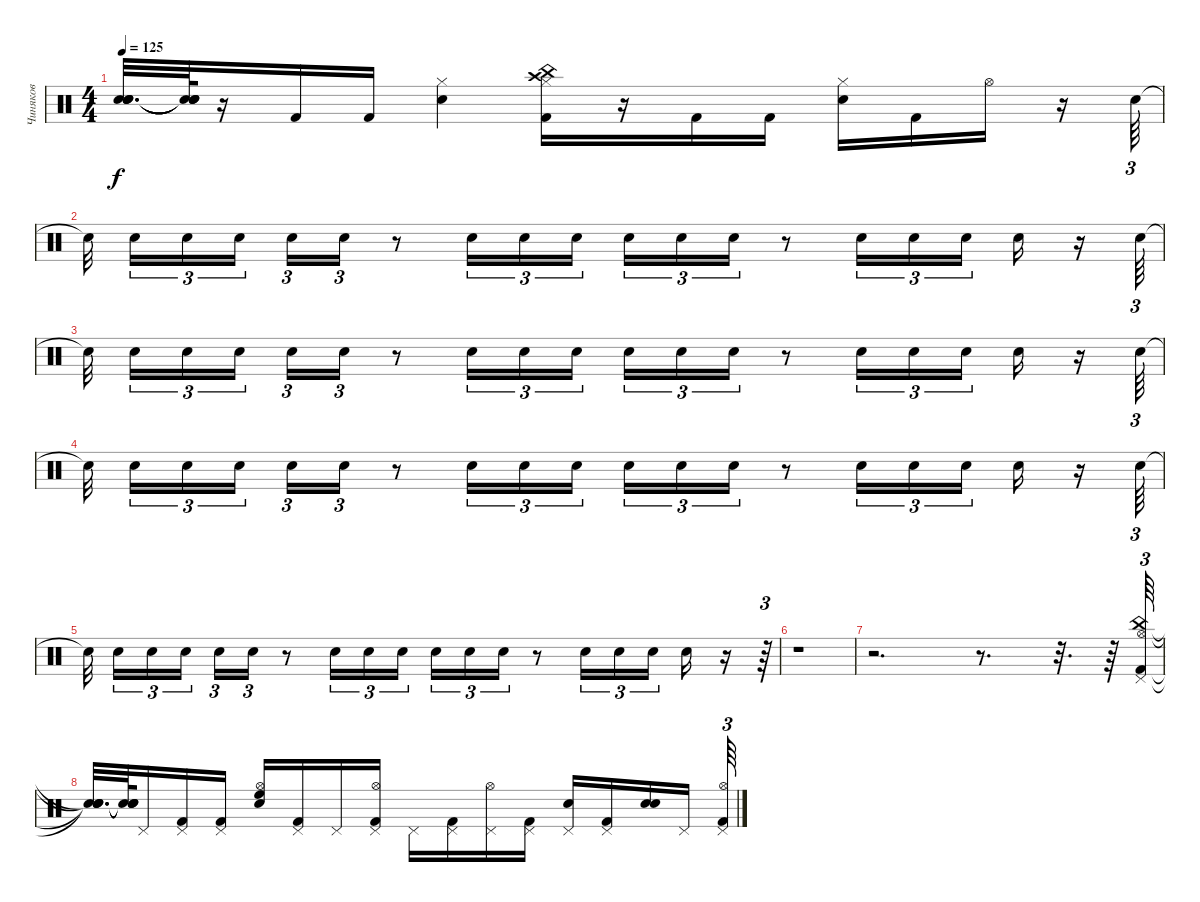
\track ("Чиняков" "Чиняков") {instrument percussion}
\staff {score}
\articulation defaults
\ts (4 4)
\tempo 125
\clef neutral
\ks c
("Snare (hit)"{t} "Snare (hit)"{t} "Snare (hit)"{t} "Snare (hit)"{t}).32{d dy f} ("Snare (hit)"{t} "Snare (hit)"{t} "Snare (hit)"{t} "Snare (hit)"{t}).64 r.16 "Kick (hit) 2".16 "Kick (hit) 2".16 ("Electric Snare (hit)" "Hi-Hat (closed)").4 ("Kick (hit) 2" "Hi-Hat (closed)" "Crash high (hit)" "China (hit)").16 r.16 "Kick (hit) 2".16 "Kick (hit) 2".16 ("Electric Snare (hit)" "Hi-Hat (closed)").16 "Kick (hit) 2".16 "Hi-Hat (open)".16 r.16 "Electric Snare (hit)".64{tu (3 2)} |
"Snare (hit)"{t}.32{beam splitsecondary} "Electric Snare (hit)".16{tu (3 2)} "Electric Snare (hit)".16{tu (3 2)} "Electric Snare (hit)".16{tu (3 2) beam splitsecondary} "Electric Snare (hit)".16{tu (3 2)} "Electric Snare (hit)".16{tu (3 2)} r.8 "Electric Snare (hit)".16{tu (3 2)} "Electric Snare (hit)".16{tu (3 2)} "Electric Snare (hit)".16{tu (3 2) beam splitsecondary} "Electric Snare (hit)".16{tu (3 2)} "Electric Snare (hit)".16{tu (3 2)} "Electric Snare (hit)".16{tu (3 2)} r.8 "Electric Snare (hit)".16{tu (3 2)} "Electric Snare (hit)".16{tu (3 2)} "Electric Snare (hit)".16{tu (3 2) beam splitsecondary} "Electric Snare (hit)".16 r.16 "Electric Snare (hit)".64{tu (3 2)} |
"Snare (hit)"{t}.32{beam splitsecondary} "Electric Snare (hit)".16{tu (3 2)} "Electric Snare (hit)".16{tu (3 2)} "Electric Snare (hit)".16{tu (3 2) beam splitsecondary} "Electric Snare (hit)".16{tu (3 2)} "Electric Snare (hit)".16{tu (3 2)} r.8 "Electric Snare (hit)".16{tu (3 2)} "Electric Snare (hit)".16{tu (3 2)} "Electric Snare (hit)".16{tu (3 2) beam splitsecondary} "Electric Snare (hit)".16{tu (3 2)} "Electric Snare (hit)".16{tu (3 2)} "Electric Snare (hit)".16{tu (3 2)} r.8 "Electric Snare (hit)".16{tu (3 2)} "Electric Snare (hit)".16{tu (3 2)} "Electric Snare (hit)".16{tu (3 2) beam splitsecondary} "Electric Snare (hit)".16 r.16 "Electric Snare (hit)".64{tu (3 2)} |
"Snare (hit)"{t}.32{beam splitsecondary} "Electric Snare (hit)".16{tu (3 2)} "Electric Snare (hit)".16{tu (3 2)} "Electric Snare (hit)".16{tu (3 2) beam splitsecondary} "Electric Snare (hit)".16{tu (3 2)} "Electric Snare (hit)".16{tu (3 2)} r.8 "Electric Snare (hit)".16{tu (3 2)} "Electric Snare (hit)".16{tu (3 2)} "Electric Snare (hit)".16{tu (3 2) beam splitsecondary} "Electric Snare (hit)".16{tu (3 2)} "Electric Snare (hit)".16{tu (3 2)} "Electric Snare (hit)".16{tu (3 2)} r.8 "Electric Snare (hit)".16{tu (3 2)} "Electric Snare (hit)".16{tu (3 2)} "Electric Snare (hit)".16{tu (3 2) beam splitsecondary} "Electric Snare (hit)".16 r.16 "Electric Snare (hit)".64{tu (3 2)} |
"Snare (hit)"{t}.32{beam splitsecondary} "Electric Snare (hit)".16{tu (3 2)} "Electric Snare (hit)".16{tu (3 2)} "Electric Snare (hit)".16{tu (3 2) beam splitsecondary} "Electric Snare (hit)".16{tu (3 2)} "Electric Snare (hit)".16{tu (3 2)} r.8 "Electric Snare (hit)".16{tu (3 2)} "Electric Snare (hit)".16{tu (3 2)} "Electric Snare (hit)".16{tu (3 2) beam splitsecondary} "Electric Snare (hit)".16{tu (3 2)} "Electric Snare (hit)".16{tu (3 2)} "Electric Snare (hit)".16{tu (3 2)} r.8 "Electric Snare (hit)".16{tu (3 2)} "Electric Snare (hit)".16{tu (3 2)} "Electric Snare (hit)".16{tu (3 2) beam splitsecondary} "Electric Snare (hit)".16 r.16 r.64{tu (3 2)} |
r.1 |
r.2{d} r.8{d} r.32{d} r.64 ("Pedal Hi-Hat (hit)" "Kick (hit) 2" "Hi-Hat (open)" "China (hit)").64{tu (3 2)} |
("Snare (hit)"{t} "Snare (hit)"{t} "Snare (hit)"{t} "Snare (hit)"{t}).32{d} ("Snare (hit)"{t} "Snare (hit)"{t} "Snare (hit)"{t} "Snare (hit)"{t}).64 "Pedal Hi-Hat (hit)".16 ("Pedal Hi-Hat (hit)" "Kick (hit) 2").16 ("Pedal Hi-Hat (hit)" "Kick (hit) 2").16 ("Electric Snare (hit)" "High Floor Tom (hit)" "Hi-Hat (open)").16 ("Pedal Hi-Hat (hit)" "Kick (hit) 2").16 "Pedal Hi-Hat (hit)".16 ("Pedal Hi-Hat (hit)" "Kick (hit) 2" "Hi-Hat (open)").16 "Pedal Hi-Hat (hit)".16 ("Pedal Hi-Hat (hit)" "Kick (hit) 2").16 ("Pedal Hi-Hat (hit)" "Hi-Hat (open)").16 ("Pedal Hi-Hat (hit)" "Kick (hit) 2").16 ("Pedal Hi-Hat (hit)" "Electric Snare (hit)").16 ("Pedal Hi-Hat (hit)" "Kick (hit) 2").16 ("Electric Snare (hit)" "Electric Snare (hit)").16 "Pedal Hi-Hat (hit)".16 ("Pedal Hi-Hat (hit)" "Kick (hit) 2" "Hi-Hat (open)").64{tu (3 2)}
